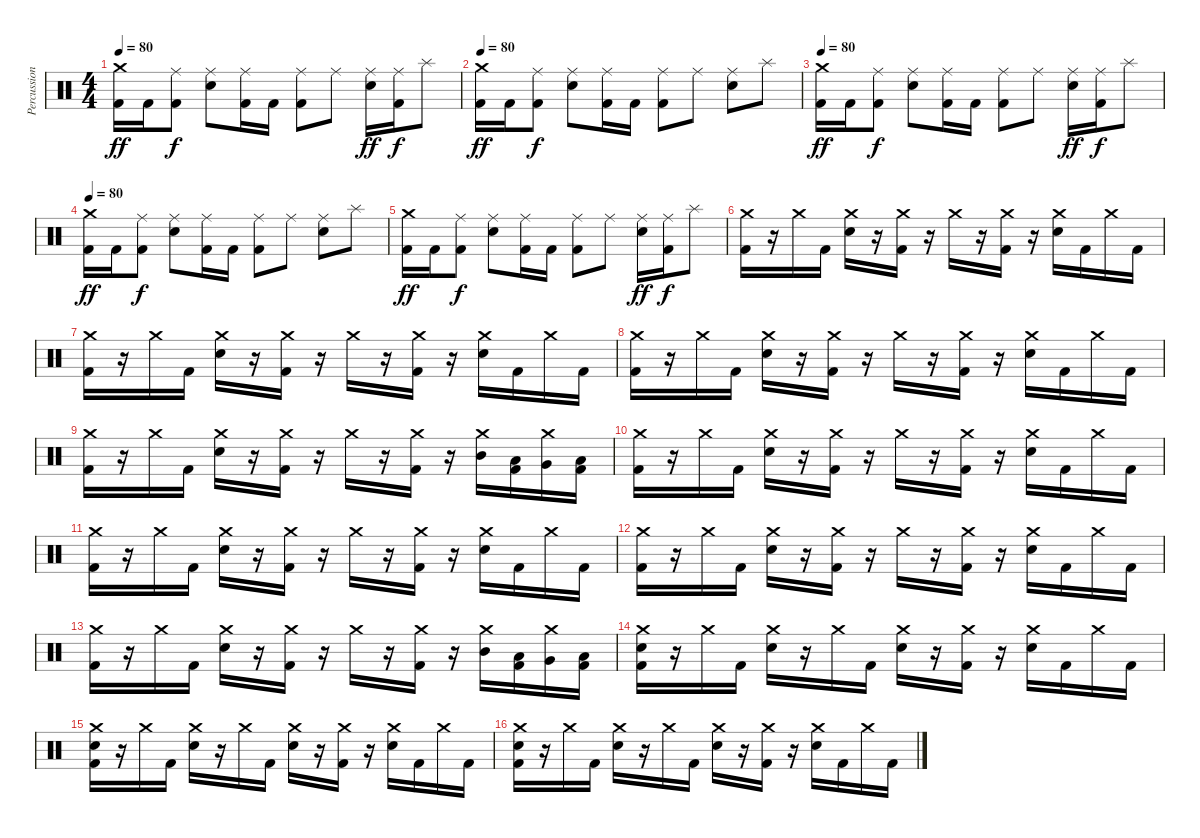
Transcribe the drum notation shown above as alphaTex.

\track ("Percussion" "Percussion") {instrument percussion}
\staff {score}
\articulation defaults
\ts (4 4)
\tempo 80
\clef neutral
\ks c
("Crash medium (hit)" "Kick (hit) 2").16{dy ff} "Kick (hit) 2".16 ("Ride (middle)" "Kick (hit) 2").8{dy f} ("Ride (middle)" "Electric Snare (hit)").8 ("Ride (middle)" "Kick (hit) 2").16 "Kick (hit) 2".16 ("Ride (middle)" "Kick (hit) 2").8 "Ride (middle)".8 ("Ride (middle)" "Electric Snare (hit)").16{dy ff} ("Ride (middle)" "Kick (hit) 2").16{dy f} "Splash (hit)".8 |
\tempo 80
("Crash medium (hit)" "Kick (hit) 2").16{dy ff} "Kick (hit) 2".16 ("Ride (middle)" "Kick (hit) 2").8{dy f} ("Ride (middle)" "Electric Snare (hit)").8 ("Ride (middle)" "Kick (hit) 2").16 "Kick (hit) 2".16 ("Ride (middle)" "Kick (hit) 2").8 "Ride (middle)".8 ("Ride (middle)" "Electric Snare (hit)").8 "Splash (hit)".8 |
\tempo 80
("Crash medium (hit)" "Kick (hit) 2").16{dy ff} "Kick (hit) 2".16 ("Ride (middle)" "Kick (hit) 2").8{dy f} ("Ride (middle)" "Electric Snare (hit)").8 ("Ride (middle)" "Kick (hit) 2").16 "Kick (hit) 2".16 ("Ride (middle)" "Kick (hit) 2").8 "Ride (middle)".8 ("Ride (middle)" "Electric Snare (hit)").16{dy ff} ("Ride (middle)" "Kick (hit) 2").16{dy f} "Splash (hit)".8 |
\tempo 80
("Crash medium (hit)" "Kick (hit) 2").16{dy ff} "Kick (hit) 2".16 ("Ride (middle)" "Kick (hit) 2").8{dy f} ("Ride (middle)" "Electric Snare (hit)").8 ("Ride (middle)" "Kick (hit) 2").16 "Kick (hit) 2".16 ("Ride (middle)" "Kick (hit) 2").8 "Ride (middle)".8 ("Ride (middle)" "Electric Snare (hit)").8 "Splash (hit)".8 |
("Crash medium (hit)" "Kick (hit) 2").16{dy ff} "Kick (hit) 2".16 ("Ride (middle)" "Kick (hit) 2").8{dy f} ("Ride (middle)" "Electric Snare (hit)").8 ("Ride (middle)" "Kick (hit) 2").16 "Kick (hit) 2".16 ("Ride (middle)" "Kick (hit) 2").8 "Ride (middle)".8 ("Ride (middle)" "Electric Snare (hit)").16{dy ff} ("Ride (middle)" "Kick (hit) 2").16{dy f} "Splash (hit)".8 |
("Crash medium (hit)" "Kick (hit) 2").16 r.16 "Crash medium (hit)".16 "Kick (hit) 2".16 ("Crash medium (hit)" "Electric Snare (hit)").16 r.16 ("Crash medium (hit)" "Kick (hit) 2").16 r.16 "Crash medium (hit)".16 r.16 ("Crash medium (hit)" "Kick (hit) 2").16 r.16 ("Crash medium (hit)" "Electric Snare (hit)").16 "Kick (hit) 2".16 "Crash medium (hit)".16 "Kick (hit) 2".16 |
("Crash medium (hit)" "Kick (hit) 2").16 r.16 "Crash medium (hit)".16 "Kick (hit) 2".16 ("Crash medium (hit)" "Electric Snare (hit)").16 r.16 ("Crash medium (hit)" "Kick (hit) 2").16 r.16 "Crash medium (hit)".16 r.16 ("Crash medium (hit)" "Kick (hit) 2").16 r.16 ("Crash medium (hit)" "Electric Snare (hit)").16 "Kick (hit) 2".16 "Crash medium (hit)".16 "Kick (hit) 2".16 |
("Crash medium (hit)" "Kick (hit) 2").16 r.16 "Crash medium (hit)".16 "Kick (hit) 2".16 ("Crash medium (hit)" "Electric Snare (hit)").16 r.16 ("Crash medium (hit)" "Kick (hit) 2").16 r.16 "Crash medium (hit)".16 r.16 ("Crash medium (hit)" "Kick (hit) 2").16 r.16 ("Crash medium (hit)" "Electric Snare (hit)").16 "Kick (hit) 2".16 "Crash medium (hit)".16 "Kick (hit) 2".16 |
("Crash medium (hit)" "Kick (hit) 2").16 r.16 "Crash medium (hit)".16 "Kick (hit) 2".16 ("Crash medium (hit)" "Electric Snare (hit)").16 r.16 ("Crash medium (hit)" "Kick (hit) 2").16 r.16 "Crash medium (hit)".16 r.16 ("Crash medium (hit)" "Kick (hit) 2").16 r.16 ("Crash medium (hit)" "Mid Tom (hit)").16 ("Low Tom (hit)" "Kick (hit) 2").16 ("Crash medium (hit)" "Very Low Tom (hit)").16 ("Low Floor Tom (hit)" "Kick (hit) 2").16 |
("Crash medium (hit)" "Kick (hit) 2").16 r.16 "Crash medium (hit)".16 "Kick (hit) 2".16 ("Crash medium (hit)" "Electric Snare (hit)").16 r.16 ("Crash medium (hit)" "Kick (hit) 2").16 r.16 "Crash medium (hit)".16 r.16 ("Crash medium (hit)" "Kick (hit) 2").16 r.16 ("Crash medium (hit)" "Electric Snare (hit)").16 "Kick (hit) 2".16 "Crash medium (hit)".16 "Kick (hit) 2".16 |
("Crash medium (hit)" "Kick (hit) 2").16 r.16 "Crash medium (hit)".16 "Kick (hit) 2".16 ("Crash medium (hit)" "Electric Snare (hit)").16 r.16 ("Crash medium (hit)" "Kick (hit) 2").16 r.16 "Crash medium (hit)".16 r.16 ("Crash medium (hit)" "Kick (hit) 2").16 r.16 ("Crash medium (hit)" "Electric Snare (hit)").16 "Kick (hit) 2".16 "Crash medium (hit)".16 "Kick (hit) 2".16 |
("Crash medium (hit)" "Kick (hit) 2").16 r.16 "Crash medium (hit)".16 "Kick (hit) 2".16 ("Crash medium (hit)" "Electric Snare (hit)").16 r.16 ("Crash medium (hit)" "Kick (hit) 2").16 r.16 "Crash medium (hit)".16 r.16 ("Crash medium (hit)" "Kick (hit) 2").16 r.16 ("Crash medium (hit)" "Electric Snare (hit)").16 "Kick (hit) 2".16 "Crash medium (hit)".16 "Kick (hit) 2".16 |
("Crash medium (hit)" "Kick (hit) 2").16 r.16 "Crash medium (hit)".16 "Kick (hit) 2".16 ("Crash medium (hit)" "Electric Snare (hit)").16 r.16 ("Crash medium (hit)" "Kick (hit) 2").16 r.16 "Crash medium (hit)".16 r.16 ("Crash medium (hit)" "Kick (hit) 2").16 r.16 ("Crash medium (hit)" "Mid Tom (hit)").16 ("Low Tom (hit)" "Kick (hit) 2").16 ("Crash medium (hit)" "Very Low Tom (hit)").16 ("Low Floor Tom (hit)" "Kick (hit) 2").16 |
("Crash medium (hit)" "Electric Snare (hit)" "Kick (hit) 2").16 r.16 "Crash medium (hit)".16 "Kick (hit) 2".16 ("Crash medium (hit)" "Electric Snare (hit)").16 r.16 "Crash medium (hit)".16 "Kick (hit) 2".16 ("Crash medium (hit)" "Electric Snare (hit)").16 r.16 ("Crash medium (hit)" "Kick (hit) 2").16 r.16 ("Crash medium (hit)" "Electric Snare (hit)").16 "Kick (hit) 2".16 "Crash medium (hit)".16 "Kick (hit) 2".16 |
("Crash medium (hit)" "Electric Snare (hit)" "Kick (hit) 2").16 r.16 "Crash medium (hit)".16 "Kick (hit) 2".16 ("Crash medium (hit)" "Electric Snare (hit)").16 r.16 "Crash medium (hit)".16 "Kick (hit) 2".16 ("Crash medium (hit)" "Electric Snare (hit)").16 r.16 ("Crash medium (hit)" "Kick (hit) 2").16 r.16 ("Crash medium (hit)" "Electric Snare (hit)").16 "Kick (hit) 2".16 "Crash medium (hit)".16 "Kick (hit) 2".16 |
("Crash medium (hit)" "Electric Snare (hit)" "Kick (hit) 2").16 r.16 "Crash medium (hit)".16 "Kick (hit) 2".16 ("Crash medium (hit)" "Electric Snare (hit)").16 r.16 "Crash medium (hit)".16 "Kick (hit) 2".16 ("Crash medium (hit)" "Electric Snare (hit)").16 r.16 ("Crash medium (hit)" "Kick (hit) 2").16 r.16 ("Crash medium (hit)" "Electric Snare (hit)").16 "Kick (hit) 2".16 "Crash medium (hit)".16 "Kick (hit) 2".16
